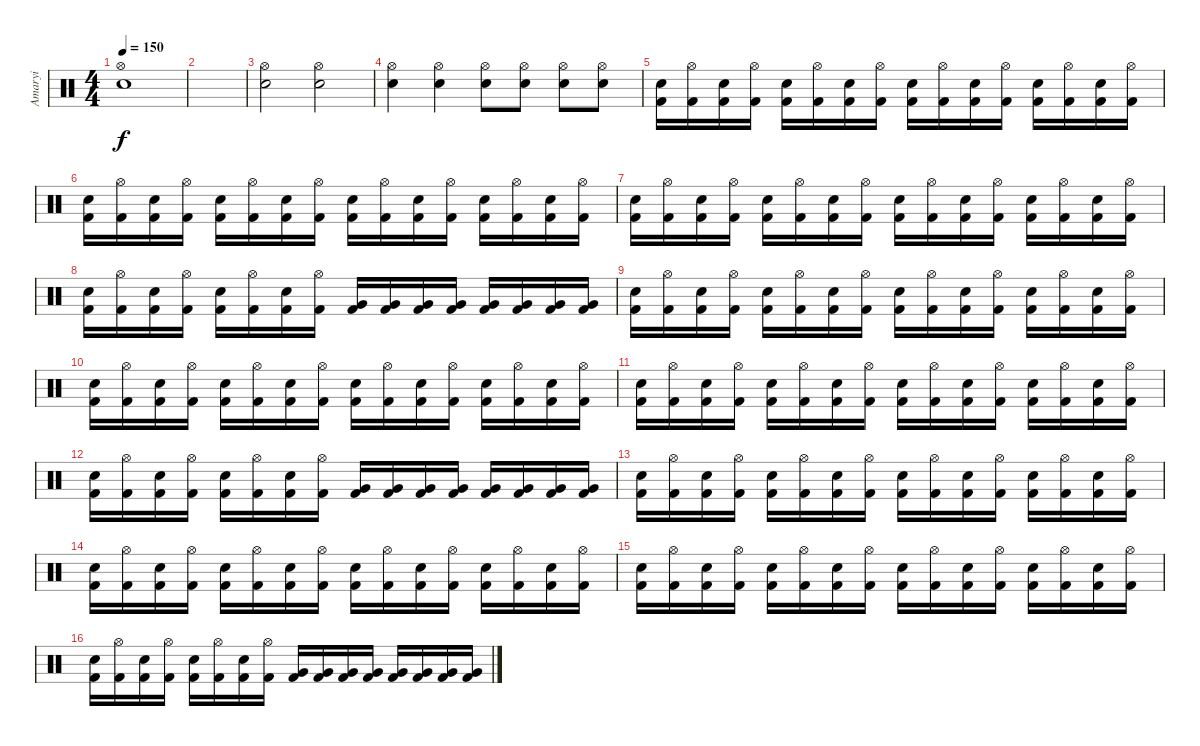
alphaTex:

\track ("Amaryi" "Amaryi") {instrument percussion}
\staff {score}
\articulation defaults
\ts (4 4)
\tempo 150
\clef neutral
\ks c
("Hi-Hat (open)" "Snare (hit) 2").1{dy f} |
|
("Hi-Hat (open)" "Snare (hit) 2").2 ("Hi-Hat (open)" "Snare (hit) 2").2 |
("Hi-Hat (open)" "Snare (hit) 2").4 ("Hi-Hat (open)" "Snare (hit) 2").4 ("Hi-Hat (open)" "Snare (hit) 2").8 ("Hi-Hat (open)" "Snare (hit) 2").8 ("Hi-Hat (open)" "Snare (hit) 2").8 ("Hi-Hat (open)" "Snare (hit) 2").8 |
("Snare (hit) 2" "Kick (hit) 2").16 ("Hi-Hat (open)" "Kick (hit) 2").16 ("Snare (hit) 2" "Kick (hit) 2").16 ("Hi-Hat (open)" "Kick (hit) 2").16 ("Snare (hit) 2" "Kick (hit) 2").16 ("Hi-Hat (open)" "Kick (hit) 2").16 ("Snare (hit) 2" "Kick (hit) 2").16 ("Hi-Hat (open)" "Kick (hit) 2").16 ("Snare (hit) 2" "Kick (hit) 2").16 ("Hi-Hat (open)" "Kick (hit) 2").16 ("Snare (hit) 2" "Kick (hit) 2").16 ("Hi-Hat (open)" "Kick (hit) 2").16 ("Snare (hit) 2" "Kick (hit) 2").16 ("Hi-Hat (open)" "Kick (hit) 2").16 ("Snare (hit) 2" "Kick (hit) 2").16 ("Hi-Hat (open)" "Kick (hit) 2").16 |
("Snare (hit) 2" "Kick (hit) 2").16 ("Hi-Hat (open)" "Kick (hit) 2").16 ("Snare (hit) 2" "Kick (hit) 2").16 ("Hi-Hat (open)" "Kick (hit) 2").16 ("Snare (hit) 2" "Kick (hit) 2").16 ("Hi-Hat (open)" "Kick (hit) 2").16 ("Snare (hit) 2" "Kick (hit) 2").16 ("Hi-Hat (open)" "Kick (hit) 2").16 ("Snare (hit) 2" "Kick (hit) 2").16 ("Hi-Hat (open)" "Kick (hit) 2").16 ("Snare (hit) 2" "Kick (hit) 2").16 ("Hi-Hat (open)" "Kick (hit) 2").16 ("Snare (hit) 2" "Kick (hit) 2").16 ("Hi-Hat (open)" "Kick (hit) 2").16 ("Snare (hit) 2" "Kick (hit) 2").16 ("Hi-Hat (open)" "Kick (hit) 2").16 |
("Snare (hit) 2" "Kick (hit) 2").16 ("Hi-Hat (open)" "Kick (hit) 2").16 ("Snare (hit) 2" "Kick (hit) 2").16 ("Hi-Hat (open)" "Kick (hit) 2").16 ("Snare (hit) 2" "Kick (hit) 2").16 ("Hi-Hat (open)" "Kick (hit) 2").16 ("Snare (hit) 2" "Kick (hit) 2").16 ("Hi-Hat (open)" "Kick (hit) 2").16 ("Snare (hit) 2" "Kick (hit) 2").16 ("Hi-Hat (open)" "Kick (hit) 2").16 ("Snare (hit) 2" "Kick (hit) 2").16 ("Hi-Hat (open)" "Kick (hit) 2").16 ("Snare (hit) 2" "Kick (hit) 2").16 ("Hi-Hat (open)" "Kick (hit) 2").16 ("Snare (hit) 2" "Kick (hit) 2").16 ("Hi-Hat (open)" "Kick (hit) 2").16 |
("Snare (hit) 2" "Kick (hit) 2").16 ("Hi-Hat (open)" "Kick (hit) 2").16 ("Snare (hit) 2" "Kick (hit) 2").16 ("Hi-Hat (open)" "Kick (hit) 2").16 ("Snare (hit) 2" "Kick (hit) 2").16 ("Hi-Hat (open)" "Kick (hit) 2").16 ("Snare (hit) 2" "Kick (hit) 2").16 ("Hi-Hat (open)" "Kick (hit) 2").16 ("Very Low Tom (hit)" "Kick (hit) 2").16 ("Very Low Tom (hit)" "Kick (hit) 2").16 ("Very Low Tom (hit)" "Kick (hit) 2").16 ("Very Low Tom (hit)" "Kick (hit) 2").16 ("Very Low Tom (hit)" "Kick (hit) 2").16 ("Very Low Tom (hit)" "Kick (hit) 2").16 ("Very Low Tom (hit)" "Kick (hit) 2").16 ("Very Low Tom (hit)" "Kick (hit) 2").16 |
("Snare (hit) 2" "Kick (hit) 2").16 ("Hi-Hat (open)" "Kick (hit) 2").16 ("Snare (hit) 2" "Kick (hit) 2").16 ("Hi-Hat (open)" "Kick (hit) 2").16 ("Snare (hit) 2" "Kick (hit) 2").16 ("Hi-Hat (open)" "Kick (hit) 2").16 ("Snare (hit) 2" "Kick (hit) 2").16 ("Hi-Hat (open)" "Kick (hit) 2").16 ("Snare (hit) 2" "Kick (hit) 2").16 ("Hi-Hat (open)" "Kick (hit) 2").16 ("Snare (hit) 2" "Kick (hit) 2").16 ("Hi-Hat (open)" "Kick (hit) 2").16 ("Snare (hit) 2" "Kick (hit) 2").16 ("Hi-Hat (open)" "Kick (hit) 2").16 ("Snare (hit) 2" "Kick (hit) 2").16 ("Hi-Hat (open)" "Kick (hit) 2").16 |
("Snare (hit) 2" "Kick (hit) 2").16 ("Hi-Hat (open)" "Kick (hit) 2").16 ("Snare (hit) 2" "Kick (hit) 2").16 ("Hi-Hat (open)" "Kick (hit) 2").16 ("Snare (hit) 2" "Kick (hit) 2").16 ("Hi-Hat (open)" "Kick (hit) 2").16 ("Snare (hit) 2" "Kick (hit) 2").16 ("Hi-Hat (open)" "Kick (hit) 2").16 ("Snare (hit) 2" "Kick (hit) 2").16 ("Hi-Hat (open)" "Kick (hit) 2").16 ("Snare (hit) 2" "Kick (hit) 2").16 ("Hi-Hat (open)" "Kick (hit) 2").16 ("Snare (hit) 2" "Kick (hit) 2").16 ("Hi-Hat (open)" "Kick (hit) 2").16 ("Snare (hit) 2" "Kick (hit) 2").16 ("Hi-Hat (open)" "Kick (hit) 2").16 |
("Snare (hit) 2" "Kick (hit) 2").16 ("Hi-Hat (open)" "Kick (hit) 2").16 ("Snare (hit) 2" "Kick (hit) 2").16 ("Hi-Hat (open)" "Kick (hit) 2").16 ("Snare (hit) 2" "Kick (hit) 2").16 ("Hi-Hat (open)" "Kick (hit) 2").16 ("Snare (hit) 2" "Kick (hit) 2").16 ("Hi-Hat (open)" "Kick (hit) 2").16 ("Snare (hit) 2" "Kick (hit) 2").16 ("Hi-Hat (open)" "Kick (hit) 2").16 ("Snare (hit) 2" "Kick (hit) 2").16 ("Hi-Hat (open)" "Kick (hit) 2").16 ("Snare (hit) 2" "Kick (hit) 2").16 ("Hi-Hat (open)" "Kick (hit) 2").16 ("Snare (hit) 2" "Kick (hit) 2").16 ("Hi-Hat (open)" "Kick (hit) 2").16 |
("Snare (hit) 2" "Kick (hit) 2").16 ("Hi-Hat (open)" "Kick (hit) 2").16 ("Snare (hit) 2" "Kick (hit) 2").16 ("Hi-Hat (open)" "Kick (hit) 2").16 ("Snare (hit) 2" "Kick (hit) 2").16 ("Hi-Hat (open)" "Kick (hit) 2").16 ("Snare (hit) 2" "Kick (hit) 2").16 ("Hi-Hat (open)" "Kick (hit) 2").16 ("Very Low Tom (hit)" "Kick (hit) 2").16 ("Very Low Tom (hit)" "Kick (hit) 2").16 ("Very Low Tom (hit)" "Kick (hit) 2").16 ("Very Low Tom (hit)" "Kick (hit) 2").16 ("Very Low Tom (hit)" "Kick (hit) 2").16 ("Very Low Tom (hit)" "Kick (hit) 2").16 ("Very Low Tom (hit)" "Kick (hit) 2").16 ("Very Low Tom (hit)" "Kick (hit) 2").16 |
("Snare (hit) 2" "Kick (hit) 2").16 ("Hi-Hat (open)" "Kick (hit) 2").16 ("Snare (hit) 2" "Kick (hit) 2").16 ("Hi-Hat (open)" "Kick (hit) 2").16 ("Snare (hit) 2" "Kick (hit) 2").16 ("Hi-Hat (open)" "Kick (hit) 2").16 ("Snare (hit) 2" "Kick (hit) 2").16 ("Hi-Hat (open)" "Kick (hit) 2").16 ("Snare (hit) 2" "Kick (hit) 2").16 ("Hi-Hat (open)" "Kick (hit) 2").16 ("Snare (hit) 2" "Kick (hit) 2").16 ("Hi-Hat (open)" "Kick (hit) 2").16 ("Snare (hit) 2" "Kick (hit) 2").16 ("Hi-Hat (open)" "Kick (hit) 2").16 ("Snare (hit) 2" "Kick (hit) 2").16 ("Hi-Hat (open)" "Kick (hit) 2").16 |
("Snare (hit) 2" "Kick (hit) 2").16 ("Hi-Hat (open)" "Kick (hit) 2").16 ("Snare (hit) 2" "Kick (hit) 2").16 ("Hi-Hat (open)" "Kick (hit) 2").16 ("Snare (hit) 2" "Kick (hit) 2").16 ("Hi-Hat (open)" "Kick (hit) 2").16 ("Snare (hit) 2" "Kick (hit) 2").16 ("Hi-Hat (open)" "Kick (hit) 2").16 ("Snare (hit) 2" "Kick (hit) 2").16 ("Hi-Hat (open)" "Kick (hit) 2").16 ("Snare (hit) 2" "Kick (hit) 2").16 ("Hi-Hat (open)" "Kick (hit) 2").16 ("Snare (hit) 2" "Kick (hit) 2").16 ("Hi-Hat (open)" "Kick (hit) 2").16 ("Snare (hit) 2" "Kick (hit) 2").16 ("Hi-Hat (open)" "Kick (hit) 2").16 |
("Snare (hit) 2" "Kick (hit) 2").16 ("Hi-Hat (open)" "Kick (hit) 2").16 ("Snare (hit) 2" "Kick (hit) 2").16 ("Hi-Hat (open)" "Kick (hit) 2").16 ("Snare (hit) 2" "Kick (hit) 2").16 ("Hi-Hat (open)" "Kick (hit) 2").16 ("Snare (hit) 2" "Kick (hit) 2").16 ("Hi-Hat (open)" "Kick (hit) 2").16 ("Snare (hit) 2" "Kick (hit) 2").16 ("Hi-Hat (open)" "Kick (hit) 2").16 ("Snare (hit) 2" "Kick (hit) 2").16 ("Hi-Hat (open)" "Kick (hit) 2").16 ("Snare (hit) 2" "Kick (hit) 2").16 ("Hi-Hat (open)" "Kick (hit) 2").16 ("Snare (hit) 2" "Kick (hit) 2").16 ("Hi-Hat (open)" "Kick (hit) 2").16 |
("Snare (hit) 2" "Kick (hit) 2").16 ("Hi-Hat (open)" "Kick (hit) 2").16 ("Snare (hit) 2" "Kick (hit) 2").16 ("Hi-Hat (open)" "Kick (hit) 2").16 ("Snare (hit) 2" "Kick (hit) 2").16 ("Hi-Hat (open)" "Kick (hit) 2").16 ("Snare (hit) 2" "Kick (hit) 2").16 ("Hi-Hat (open)" "Kick (hit) 2").16 ("Very Low Tom (hit)" "Kick (hit) 2").16 ("Very Low Tom (hit)" "Kick (hit) 2").16 ("Very Low Tom (hit)" "Kick (hit) 2").16 ("Very Low Tom (hit)" "Kick (hit) 2").16 ("Very Low Tom (hit)" "Kick (hit) 2").16 ("Very Low Tom (hit)" "Kick (hit) 2").16 ("Very Low Tom (hit)" "Kick (hit) 2").16 ("Very Low Tom (hit)" "Kick (hit) 2").16
